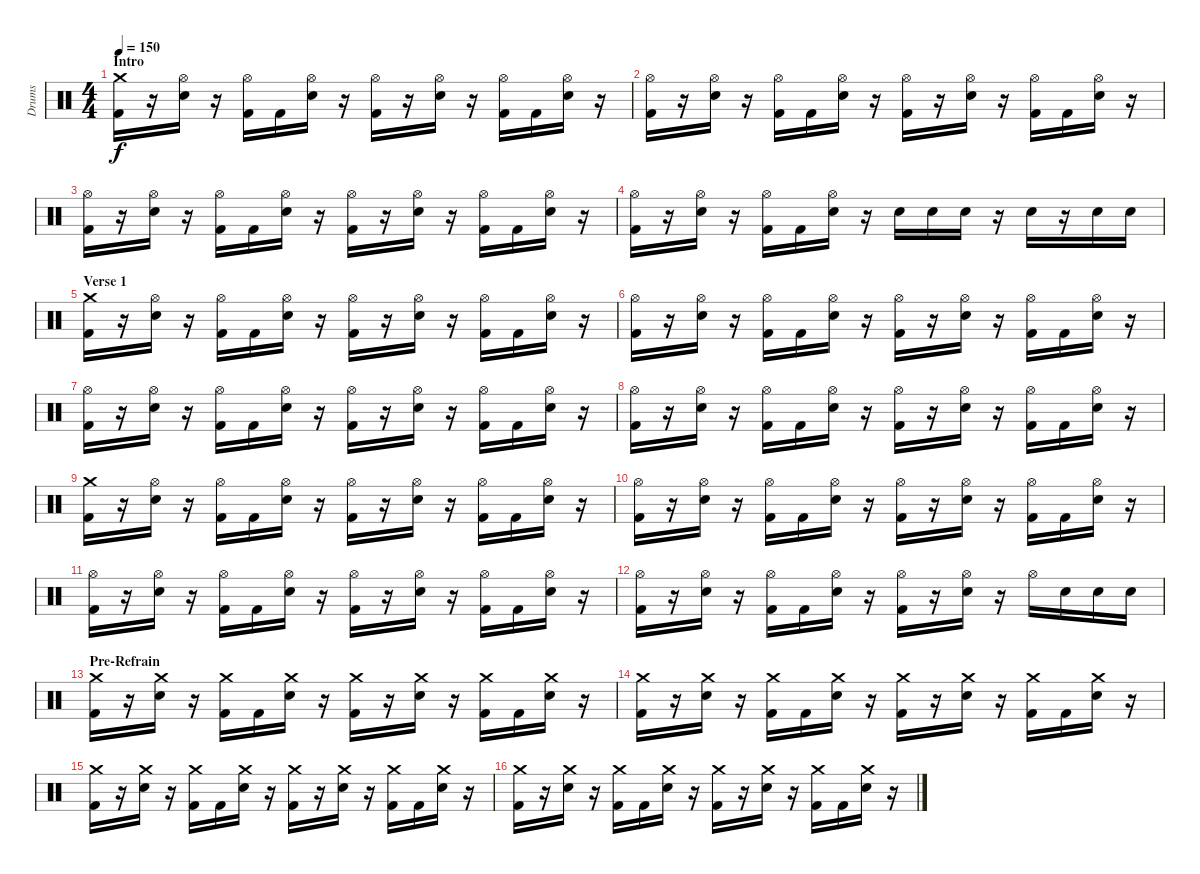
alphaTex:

\track ("Drums" "Drums") {instrument percussion}
\staff {score}
\articulation defaults
\ts (4 4)
\section ("" "Intro")
\tempo 150
\clef neutral
\ks c
("Crash medium (hit)" "Kick (hit) 2").16{dy f} r.16 ("Hi-Hat (open)" "Electric Snare (hit)").16 r.16 ("Hi-Hat (open)" "Kick (hit) 2").16 "Kick (hit) 2".16 ("Hi-Hat (open)" "Electric Snare (hit)").16 r.16 ("Hi-Hat (open)" "Kick (hit) 2").16 r.16 ("Hi-Hat (open)" "Electric Snare (hit)").16 r.16 ("Hi-Hat (open)" "Kick (hit) 2").16 "Kick (hit) 2".16 ("Hi-Hat (open)" "Electric Snare (hit)").16 r.16 |
("Hi-Hat (open)" "Kick (hit) 2").16 r.16 ("Hi-Hat (open)" "Electric Snare (hit)").16 r.16 ("Hi-Hat (open)" "Kick (hit) 2").16 "Kick (hit) 2".16 ("Hi-Hat (open)" "Electric Snare (hit)").16 r.16 ("Hi-Hat (open)" "Kick (hit) 2").16 r.16 ("Hi-Hat (open)" "Electric Snare (hit)").16 r.16 ("Hi-Hat (open)" "Kick (hit) 2").16 "Kick (hit) 2".16 ("Hi-Hat (open)" "Electric Snare (hit)").16 r.16 |
("Hi-Hat (open)" "Kick (hit) 2").16 r.16 ("Hi-Hat (open)" "Electric Snare (hit)").16 r.16 ("Hi-Hat (open)" "Kick (hit) 2").16 "Kick (hit) 2".16 ("Hi-Hat (open)" "Electric Snare (hit)").16 r.16 ("Hi-Hat (open)" "Kick (hit) 2").16 r.16 ("Hi-Hat (open)" "Electric Snare (hit)").16 r.16 ("Hi-Hat (open)" "Kick (hit) 2").16 "Kick (hit) 2".16 ("Hi-Hat (open)" "Electric Snare (hit)").16 r.16 |
("Hi-Hat (open)" "Kick (hit) 2").16 r.16 ("Hi-Hat (open)" "Electric Snare (hit)").16 r.16 ("Hi-Hat (open)" "Kick (hit) 2").16 "Kick (hit) 2".16 ("Hi-Hat (open)" "Electric Snare (hit)").16 r.16 "Electric Snare (hit)".16 "Electric Snare (hit)".16 "Electric Snare (hit)".16 r.16 "Electric Snare (hit)".16 r.16 "Electric Snare (hit)".16 "Electric Snare (hit)".16 |
\section ("" "Verse 1")
("Crash medium (hit)" "Kick (hit) 2").16 r.16 ("Hi-Hat (open)" "Electric Snare (hit)").16 r.16 ("Hi-Hat (open)" "Kick (hit) 2").16 "Kick (hit) 2".16 ("Hi-Hat (open)" "Electric Snare (hit)").16 r.16 ("Hi-Hat (open)" "Kick (hit) 2").16 r.16 ("Hi-Hat (open)" "Electric Snare (hit)").16 r.16 ("Hi-Hat (open)" "Kick (hit) 2").16 "Kick (hit) 2".16 ("Hi-Hat (open)" "Electric Snare (hit)").16 r.16 |
("Hi-Hat (open)" "Kick (hit) 2").16 r.16 ("Hi-Hat (open)" "Electric Snare (hit)").16 r.16 ("Hi-Hat (open)" "Kick (hit) 2").16 "Kick (hit) 2".16 ("Hi-Hat (open)" "Electric Snare (hit)").16 r.16 ("Hi-Hat (open)" "Kick (hit) 2").16 r.16 ("Hi-Hat (open)" "Electric Snare (hit)").16 r.16 ("Hi-Hat (open)" "Kick (hit) 2").16 "Kick (hit) 2".16 ("Hi-Hat (open)" "Electric Snare (hit)").16 r.16 |
("Hi-Hat (open)" "Kick (hit) 2").16 r.16 ("Hi-Hat (open)" "Electric Snare (hit)").16 r.16 ("Hi-Hat (open)" "Kick (hit) 2").16 "Kick (hit) 2".16 ("Hi-Hat (open)" "Electric Snare (hit)").16 r.16 ("Hi-Hat (open)" "Kick (hit) 2").16 r.16 ("Hi-Hat (open)" "Electric Snare (hit)").16 r.16 ("Hi-Hat (open)" "Kick (hit) 2").16 "Kick (hit) 2".16 ("Hi-Hat (open)" "Electric Snare (hit)").16 r.16 |
("Hi-Hat (open)" "Kick (hit) 2").16 r.16 ("Hi-Hat (open)" "Electric Snare (hit)").16 r.16 ("Hi-Hat (open)" "Kick (hit) 2").16 "Kick (hit) 2".16 ("Hi-Hat (open)" "Electric Snare (hit)").16 r.16 ("Hi-Hat (open)" "Kick (hit) 2").16 r.16 ("Hi-Hat (open)" "Electric Snare (hit)").16 r.16 ("Hi-Hat (open)" "Kick (hit) 2").16 "Kick (hit) 2".16 ("Hi-Hat (open)" "Electric Snare (hit)").16 r.16 |
("Crash medium (hit)" "Kick (hit) 2").16 r.16 ("Hi-Hat (open)" "Electric Snare (hit)").16 r.16 ("Hi-Hat (open)" "Kick (hit) 2").16 "Kick (hit) 2".16 ("Hi-Hat (open)" "Electric Snare (hit)").16 r.16 ("Hi-Hat (open)" "Kick (hit) 2").16 r.16 ("Hi-Hat (open)" "Electric Snare (hit)").16 r.16 ("Hi-Hat (open)" "Kick (hit) 2").16 "Kick (hit) 2".16 ("Hi-Hat (open)" "Electric Snare (hit)").16 r.16 |
("Hi-Hat (open)" "Kick (hit) 2").16 r.16 ("Hi-Hat (open)" "Electric Snare (hit)").16 r.16 ("Hi-Hat (open)" "Kick (hit) 2").16 "Kick (hit) 2".16 ("Hi-Hat (open)" "Electric Snare (hit)").16 r.16 ("Hi-Hat (open)" "Kick (hit) 2").16 r.16 ("Hi-Hat (open)" "Electric Snare (hit)").16 r.16 ("Hi-Hat (open)" "Kick (hit) 2").16 "Kick (hit) 2".16 ("Hi-Hat (open)" "Electric Snare (hit)").16 r.16 |
("Hi-Hat (open)" "Kick (hit) 2").16 r.16 ("Hi-Hat (open)" "Electric Snare (hit)").16 r.16 ("Hi-Hat (open)" "Kick (hit) 2").16 "Kick (hit) 2".16 ("Hi-Hat (open)" "Electric Snare (hit)").16 r.16 ("Hi-Hat (open)" "Kick (hit) 2").16 r.16 ("Hi-Hat (open)" "Electric Snare (hit)").16 r.16 ("Hi-Hat (open)" "Kick (hit) 2").16 "Kick (hit) 2".16 ("Hi-Hat (open)" "Electric Snare (hit)").16 r.16 |
("Hi-Hat (open)" "Kick (hit) 2").16 r.16 ("Hi-Hat (open)" "Electric Snare (hit)").16 r.16 ("Hi-Hat (open)" "Kick (hit) 2").16 "Kick (hit) 2".16 ("Hi-Hat (open)" "Electric Snare (hit)").16 r.16 ("Hi-Hat (open)" "Kick (hit) 2").16 r.16 ("Hi-Hat (open)" "Electric Snare (hit)").16 r.16 "Hi-Hat (open)".16 "Electric Snare (hit)".16 "Electric Snare (hit)".16 "Electric Snare (hit)".16 |
\section ("" "Pre-Refrain")
("Crash medium (hit)" "Kick (hit) 2").16 r.16 ("Crash medium (hit)" "Electric Snare (hit)").16 r.16 ("Crash medium (hit)" "Kick (hit) 2").16 "Kick (hit) 2".16 ("Crash medium (hit)" "Electric Snare (hit)").16 r.16 ("Crash medium (hit)" "Kick (hit) 2").16 r.16 ("Crash medium (hit)" "Electric Snare (hit)").16 r.16 ("Crash medium (hit)" "Kick (hit) 2").16 "Kick (hit) 2".16 ("Crash medium (hit)" "Electric Snare (hit)").16 r.16 |
("Crash medium (hit)" "Kick (hit) 2").16 r.16 ("Crash medium (hit)" "Electric Snare (hit)").16 r.16 ("Crash medium (hit)" "Kick (hit) 2").16 "Kick (hit) 2".16 ("Crash medium (hit)" "Electric Snare (hit)").16 r.16 ("Crash medium (hit)" "Kick (hit) 2").16 r.16 ("Crash medium (hit)" "Electric Snare (hit)").16 r.16 ("Crash medium (hit)" "Kick (hit) 2").16 "Kick (hit) 2".16 ("Crash medium (hit)" "Electric Snare (hit)").16 r.16 |
("Crash medium (hit)" "Kick (hit) 2").16 r.16 ("Crash medium (hit)" "Electric Snare (hit)").16 r.16 ("Crash medium (hit)" "Kick (hit) 2").16 "Kick (hit) 2".16 ("Crash medium (hit)" "Electric Snare (hit)").16 r.16 ("Crash medium (hit)" "Kick (hit) 2").16 r.16 ("Crash medium (hit)" "Electric Snare (hit)").16 r.16 ("Crash medium (hit)" "Kick (hit) 2").16 "Kick (hit) 2".16 ("Crash medium (hit)" "Electric Snare (hit)").16 r.16 |
("Crash medium (hit)" "Kick (hit) 2").16 r.16 ("Crash medium (hit)" "Electric Snare (hit)").16 r.16 ("Crash medium (hit)" "Kick (hit) 2").16 "Kick (hit) 2".16 ("Crash medium (hit)" "Electric Snare (hit)").16 r.16 ("Crash medium (hit)" "Kick (hit) 2").16 r.16 ("Crash medium (hit)" "Electric Snare (hit)").16 r.16 ("Crash medium (hit)" "Kick (hit) 2").16 "Kick (hit) 2".16 ("Crash medium (hit)" "Electric Snare (hit)").16 r.16
